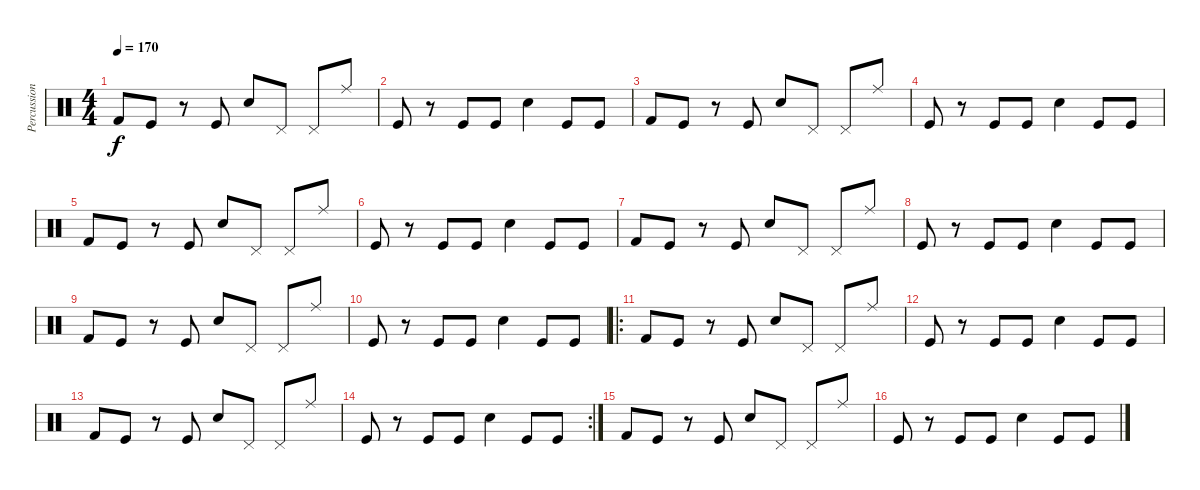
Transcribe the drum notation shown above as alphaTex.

\track ("Percussion" "Percussion") {instrument percussion}
\staff {score}
\articulation defaults
\ts (4 4)
\tempo 170
\clef neutral
\ks c "Kick (hit) 2".8{dy f} "Kick (hit)".8
r.8 "Kick (hit)".8 "Electric Snare (hit)".8 "Pedal Hi-Hat (hit)".8 "Pedal Hi-Hat (hit)".8 "Ride (middle)".8 |
"Kick (hit)".8 r.8 "Kick (hit)".8 "Kick (hit)".8 "Electric Snare (hit)".4 "Kick (hit)".8 "Kick (hit)".8 |
"Kick (hit) 2".8 "Kick (hit)".8 r.8 "Kick (hit)".8 "Electric Snare (hit)".8 "Pedal Hi-Hat (hit)".8 "Pedal Hi-Hat (hit)".8 "Ride (middle)".8 |
"Kick (hit)".8 r.8 "Kick (hit)".8 "Kick (hit)".8 "Electric Snare (hit)".4 "Kick (hit)".8 "Kick (hit)".8 |
"Kick (hit) 2".8 "Kick (hit)".8 r.8 "Kick (hit)".8 "Electric Snare (hit)".8 "Pedal Hi-Hat (hit)".8 "Pedal Hi-Hat (hit)".8 "Ride (middle)".8 |
"Kick (hit)".8 r.8 "Kick (hit)".8 "Kick (hit)".8 "Electric Snare (hit)".4 "Kick (hit)".8 "Kick (hit)".8 |
"Kick (hit) 2".8 "Kick (hit)".8 r.8 "Kick (hit)".8 "Electric Snare (hit)".8 "Pedal Hi-Hat (hit)".8 "Pedal Hi-Hat (hit)".8 "Ride (middle)".8 |
"Kick (hit)".8 r.8 "Kick (hit)".8 "Kick (hit)".8 "Electric Snare (hit)".4 "Kick (hit)".8 "Kick (hit)".8 |
"Kick (hit) 2".8 "Kick (hit)".8 r.8 "Kick (hit)".8 "Electric Snare (hit)".8 "Pedal Hi-Hat (hit)".8 "Pedal Hi-Hat (hit)".8 "Ride (middle)".8 |
"Kick (hit)".8 r.8 "Kick (hit)".8 "Kick (hit)".8 "Electric Snare (hit)".4 "Kick (hit)".8 "Kick (hit)".8 |
\ro "Kick (hit) 2".8 "Kick (hit)".8
r.8 "Kick (hit)".8 "Electric Snare (hit)".8 "Pedal Hi-Hat (hit)".8 "Pedal Hi-Hat (hit)".8 "Ride (middle)".8 |
"Kick (hit)".8 r.8 "Kick (hit)".8 "Kick (hit)".8 "Electric Snare (hit)".4 "Kick (hit)".8 "Kick (hit)".8 |
"Kick (hit) 2".8 "Kick (hit)".8 r.8 "Kick (hit)".8 "Electric Snare (hit)".8 "Pedal Hi-Hat (hit)".8 "Pedal Hi-Hat (hit)".8 "Ride (middle)".8 |
\rc 2 "Kick (hit)".8
r.8 "Kick (hit)".8 "Kick (hit)".8 "Electric Snare (hit)".4 "Kick (hit)".8 "Kick (hit)".8 |
"Kick (hit) 2".8 "Kick (hit)".8 r.8 "Kick (hit)".8 "Electric Snare (hit)".8 "Pedal Hi-Hat (hit)".8 "Pedal Hi-Hat (hit)".8 "Ride (middle)".8 |
"Kick (hit)".8 r.8 "Kick (hit)".8 "Kick (hit)".8 "Electric Snare (hit)".4 "Kick (hit)".8 "Kick (hit)".8
